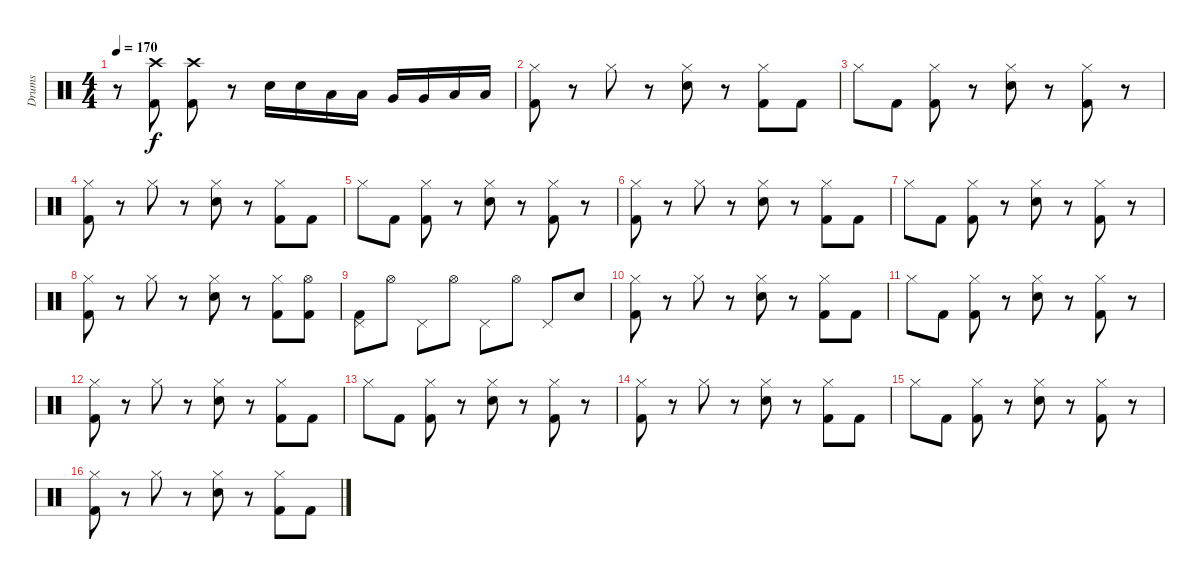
\track ("Drums" "Drums") {instrument percussion}
\staff {score}
\articulation defaults
\ts (4 4)
\tempo 170
\clef neutral
\ks c
r.8{dy f} ("Crash high (hit)" "Kick (hit) 2").8 ("Crash high (hit)" "Kick (hit) 2").8 r.8 "Electric Snare (hit)".16 "Electric Snare (hit)".16 "Low Tom (hit)".16 "Low Tom (hit)".16 "Very Low Tom (hit)".16 "Very Low Tom (hit)".16 "Low Floor Tom (hit)".16 "Low Floor Tom (hit)".16 |
("Hi-Hat (closed)" "Kick (hit) 2").8 r.8 "Hi-Hat (closed)".8 r.8 ("Hi-Hat (closed)" "Electric Snare (hit)").8 r.8 ("Hi-Hat (closed)" "Kick (hit) 2").8 "Kick (hit) 2".8 |
"Hi-Hat (closed)".8 "Kick (hit) 2".8 ("Hi-Hat (closed)" "Kick (hit) 2").8 r.8 ("Hi-Hat (closed)" "Electric Snare (hit)").8 r.8 ("Hi-Hat (closed)" "Kick (hit) 2").8 r.8 |
("Hi-Hat (closed)" "Kick (hit) 2").8 r.8 "Hi-Hat (closed)".8 r.8 ("Hi-Hat (closed)" "Electric Snare (hit)").8 r.8 ("Hi-Hat (closed)" "Kick (hit) 2").8 "Kick (hit) 2".8 |
"Hi-Hat (closed)".8 "Kick (hit) 2".8 ("Hi-Hat (closed)" "Kick (hit) 2").8 r.8 ("Hi-Hat (closed)" "Electric Snare (hit)").8 r.8 ("Hi-Hat (closed)" "Kick (hit) 2").8 r.8 |
("Hi-Hat (closed)" "Kick (hit) 2").8 r.8 "Hi-Hat (closed)".8 r.8 ("Hi-Hat (closed)" "Electric Snare (hit)").8 r.8 ("Hi-Hat (closed)" "Kick (hit) 2").8 "Kick (hit) 2".8 |
"Hi-Hat (closed)".8 "Kick (hit) 2".8 ("Hi-Hat (closed)" "Kick (hit) 2").8 r.8 ("Hi-Hat (closed)" "Electric Snare (hit)").8 r.8 ("Hi-Hat (closed)" "Kick (hit) 2").8 r.8 |
("Hi-Hat (closed)" "Kick (hit) 2").8 r.8 "Hi-Hat (closed)".8 r.8 ("Hi-Hat (closed)" "Electric Snare (hit)").8 r.8 ("Hi-Hat (closed)" "Kick (hit) 2").8 ("Hi-Hat (open)" "Kick (hit) 2").8 |
("Pedal Hi-Hat (hit)" "Kick (hit) 2").8 "Hi-Hat (open)".8 "Pedal Hi-Hat (hit)".8 "Hi-Hat (open)".8 "Pedal Hi-Hat (hit)".8 "Hi-Hat (open)".8 "Pedal Hi-Hat (hit)".8 "Electric Snare (hit)".8 |
("Hi-Hat (closed)" "Kick (hit) 2").8 r.8 "Hi-Hat (closed)".8 r.8 ("Hi-Hat (closed)" "Electric Snare (hit)").8 r.8 ("Hi-Hat (closed)" "Kick (hit) 2").8 "Kick (hit) 2".8 |
"Hi-Hat (closed)".8 "Kick (hit) 2".8 ("Hi-Hat (closed)" "Kick (hit) 2").8 r.8 ("Hi-Hat (closed)" "Electric Snare (hit)").8 r.8 ("Hi-Hat (closed)" "Kick (hit) 2").8 r.8 |
("Hi-Hat (closed)" "Kick (hit) 2").8 r.8 "Hi-Hat (closed)".8 r.8 ("Hi-Hat (closed)" "Electric Snare (hit)").8 r.8 ("Hi-Hat (closed)" "Kick (hit) 2").8 "Kick (hit) 2".8 |
"Hi-Hat (closed)".8 "Kick (hit) 2".8 ("Hi-Hat (closed)" "Kick (hit) 2").8 r.8 ("Hi-Hat (closed)" "Electric Snare (hit)").8 r.8 ("Hi-Hat (closed)" "Kick (hit) 2").8 r.8 |
("Hi-Hat (closed)" "Kick (hit) 2").8 r.8 "Hi-Hat (closed)".8 r.8 ("Hi-Hat (closed)" "Electric Snare (hit)").8 r.8 ("Hi-Hat (closed)" "Kick (hit) 2").8 "Kick (hit) 2".8 |
"Hi-Hat (closed)".8 "Kick (hit) 2".8 ("Hi-Hat (closed)" "Kick (hit) 2").8 r.8 ("Hi-Hat (closed)" "Electric Snare (hit)").8 r.8 ("Hi-Hat (closed)" "Kick (hit) 2").8 r.8 |
("Hi-Hat (closed)" "Kick (hit) 2").8 r.8 "Hi-Hat (closed)".8 r.8 ("Hi-Hat (closed)" "Electric Snare (hit)").8 r.8 ("Hi-Hat (closed)" "Kick (hit) 2").8 "Kick (hit) 2".8
